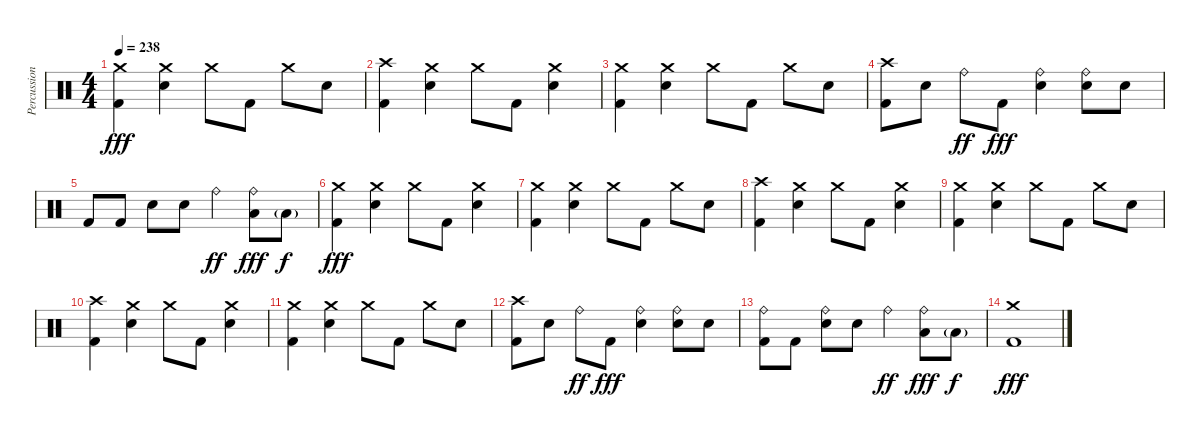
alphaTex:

\track ("Percussion" "Percussion") {instrument percussion}
\staff {score}
\articulation defaults
\ts (4 4)
\tempo 238
\clef neutral
\ks c
("Crash medium (hit)" "Kick (hit) 2").4{dy fff} ("Crash medium (hit)" "Electric Snare (hit)").4 "Crash medium (hit)".8 "Kick (hit) 2".8 "Crash medium (hit)".8 "Electric Snare (hit)".8 |
("Crash high (hit)" "Kick (hit) 2").4 ("Crash medium (hit)" "Electric Snare (hit)").4 "Crash medium (hit)".8 "Kick (hit) 2".8 ("Crash medium (hit)" "Electric Snare (hit)").4 |
("Crash medium (hit)" "Kick (hit) 2").4 ("Crash medium (hit)" "Electric Snare (hit)").4 "Crash medium (hit)".8 "Kick (hit) 2".8 "Crash medium (hit)".8 "Electric Snare (hit)".8 |
("Crash high (hit)" "Kick (hit) 2").8 "Electric Snare (hit)".8 "Ride (bell)".8{dy ff} "Kick (hit) 2".8{dy fff} ("Ride (bell)" "Electric Snare (hit)").4 ("Ride (bell)" "Electric Snare (hit)").8 "Electric Snare (hit)".8 |
"Kick (hit) 2".8 "Kick (hit) 2".8 "Electric Snare (hit)".8 "Electric Snare (hit)".8 "Ride (bell)".4{dy ff} ("Ride (bell)" "Low Tom (hit)").8{dy fff} "Low Tom (hit)"{g}.8{dy f} |
("Crash medium (hit)" "Kick (hit) 2").4{dy fff} ("Crash medium (hit)" "Electric Snare (hit)").4 "Crash medium (hit)".8 "Kick (hit) 2".8 ("Crash medium (hit)" "Electric Snare (hit)").4 |
("Crash medium (hit)" "Kick (hit) 2").4 ("Crash medium (hit)" "Electric Snare (hit)").4 "Crash medium (hit)".8 "Kick (hit) 2".8 "Crash medium (hit)".8 "Electric Snare (hit)".8 |
("Crash high (hit)" "Kick (hit) 2").4 ("Crash medium (hit)" "Electric Snare (hit)").4 "Crash medium (hit)".8 "Kick (hit) 2".8 ("Crash medium (hit)" "Electric Snare (hit)").4 |
("Crash medium (hit)" "Kick (hit) 2").4 ("Crash medium (hit)" "Electric Snare (hit)").4 "Crash medium (hit)".8 "Kick (hit) 2".8 "Crash medium (hit)".8 "Electric Snare (hit)".8 |
("Crash high (hit)" "Kick (hit) 2").4 ("Crash medium (hit)" "Electric Snare (hit)").4 "Crash medium (hit)".8 "Kick (hit) 2".8 ("Crash medium (hit)" "Electric Snare (hit)").4 |
("Crash medium (hit)" "Kick (hit) 2").4 ("Crash medium (hit)" "Electric Snare (hit)").4 "Crash medium (hit)".8 "Kick (hit) 2".8 "Crash medium (hit)".8 "Electric Snare (hit)".8 |
("Crash high (hit)" "Kick (hit) 2").8 "Electric Snare (hit)".8 "Ride (bell)".8{dy ff} "Kick (hit) 2".8{dy fff} ("Ride (bell)" "Electric Snare (hit)").4 ("Ride (bell)" "Electric Snare (hit)").8 "Electric Snare (hit)".8 |
("Ride (bell)" "Kick (hit) 2").8 "Kick (hit) 2".8 ("Ride (bell)" "Electric Snare (hit)").8 "Electric Snare (hit)".8 "Ride (bell)".4{dy ff} ("Ride (bell)" "Low Tom (hit)").8{dy fff} "Low Tom (hit)"{g}.8{dy f} |
("Crash medium (hit)" "Kick (hit) 2").1{dy fff}
